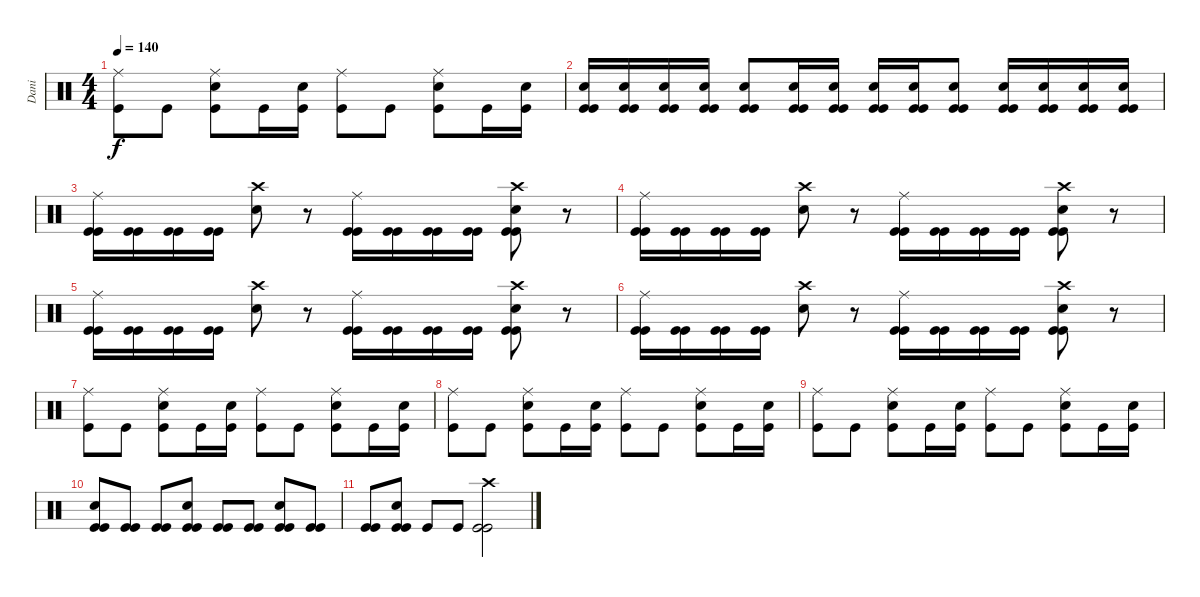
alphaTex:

\track ("Dani" "Dani") {instrument percussion}
\staff {score}
\articulation defaults
\ts (4 4)
\tempo 140
\clef neutral
\ks c
("Ride (middle)" "Kick (hit)").8{dy f} "Kick (hit)".8 ("Ride (middle)" "Snare (hit) 2" "Kick (hit)").8 "Kick (hit)".16 ("Snare (hit) 2" "Kick (hit)").16 ("Ride (middle)" "Kick (hit)").8 "Kick (hit)".8 ("Ride (middle)" "Snare (hit) 2" "Kick (hit)").8 "Kick (hit)".16 ("Snare (hit) 2" "Kick (hit)").16 |
("Snare (hit) 2" "Kick (hit)" "Kick (hit)").16 ("Snare (hit) 2" "Kick (hit)" "Kick (hit)").16 ("Snare (hit) 2" "Kick (hit)" "Kick (hit)").16 ("Snare (hit) 2" "Kick (hit)" "Kick (hit)").16 ("Snare (hit) 2" "Kick (hit)" "Kick (hit)").8 ("Snare (hit) 2" "Kick (hit)" "Kick (hit)").16 ("Snare (hit) 2" "Kick (hit)" "Kick (hit)").16 ("Snare (hit) 2" "Kick (hit)" "Kick (hit)").16 ("Snare (hit) 2" "Kick (hit)" "Kick (hit)").16 ("Snare (hit) 2" "Kick (hit)" "Kick (hit)").8 ("Snare (hit) 2" "Kick (hit)" "Kick (hit)").16 ("Snare (hit) 2" "Kick (hit)" "Kick (hit)").16 ("Snare (hit) 2" "Kick (hit)" "Kick (hit)").16 ("Snare (hit) 2" "Kick (hit)" "Kick (hit)").16 |
("Ride (middle)" "Kick (hit)" "Kick (hit)").16 ("Kick (hit)" "Kick (hit)").16 ("Kick (hit)" "Kick (hit)").16 ("Kick (hit)" "Kick (hit)").16 ("Crash high (hit)" "Snare (hit) 2").8 r.8 ("Ride (middle)" "Kick (hit)" "Kick (hit)").16 ("Kick (hit)" "Kick (hit)").16 ("Kick (hit)" "Kick (hit)").16 ("Kick (hit)" "Kick (hit)").16 ("Crash high (hit)" "Snare (hit) 2" "Kick (hit)" "Kick (hit)").8 r.8 |
("Ride (middle)" "Kick (hit)" "Kick (hit)").16 ("Kick (hit)" "Kick (hit)").16 ("Kick (hit)" "Kick (hit)").16 ("Kick (hit)" "Kick (hit)").16 ("Crash high (hit)" "Snare (hit) 2").8 r.8 ("Ride (middle)" "Kick (hit)" "Kick (hit)").16 ("Kick (hit)" "Kick (hit)").16 ("Kick (hit)" "Kick (hit)").16 ("Kick (hit)" "Kick (hit)").16 ("Crash high (hit)" "Snare (hit) 2" "Kick (hit)" "Kick (hit)").8 r.8 |
("Ride (middle)" "Kick (hit)" "Kick (hit)").16 ("Kick (hit)" "Kick (hit)").16 ("Kick (hit)" "Kick (hit)").16 ("Kick (hit)" "Kick (hit)").16 ("Crash high (hit)" "Snare (hit) 2").8 r.8 ("Ride (middle)" "Kick (hit)" "Kick (hit)").16 ("Kick (hit)" "Kick (hit)").16 ("Kick (hit)" "Kick (hit)").16 ("Kick (hit)" "Kick (hit)").16 ("Crash high (hit)" "Snare (hit) 2" "Kick (hit)" "Kick (hit)").8 r.8 |
("Ride (middle)" "Kick (hit)" "Kick (hit)").16 ("Kick (hit)" "Kick (hit)").16 ("Kick (hit)" "Kick (hit)").16 ("Kick (hit)" "Kick (hit)").16 ("Crash high (hit)" "Snare (hit) 2").8 r.8 ("Ride (middle)" "Kick (hit)" "Kick (hit)").16 ("Kick (hit)" "Kick (hit)").16 ("Kick (hit)" "Kick (hit)").16 ("Kick (hit)" "Kick (hit)").16 ("Crash high (hit)" "Snare (hit) 2" "Kick (hit)" "Kick (hit)").8 r.8 |
("Ride (middle)" "Kick (hit)").8 "Kick (hit)".8 ("Ride (middle)" "Snare (hit) 2" "Kick (hit)").8 "Kick (hit)".16 ("Snare (hit) 2" "Kick (hit)").16 ("Ride (middle)" "Kick (hit)").8 "Kick (hit)".8 ("Ride (middle)" "Snare (hit) 2" "Kick (hit)").8 "Kick (hit)".16 ("Snare (hit) 2" "Kick (hit)").16 |
("Ride (middle)" "Kick (hit)").8 "Kick (hit)".8 ("Ride (middle)" "Snare (hit) 2" "Kick (hit)").8 "Kick (hit)".16 ("Snare (hit) 2" "Kick (hit)").16 ("Ride (middle)" "Kick (hit)").8 "Kick (hit)".8 ("Ride (middle)" "Snare (hit) 2" "Kick (hit)").8 "Kick (hit)".16 ("Snare (hit) 2" "Kick (hit)").16 |
("Ride (middle)" "Kick (hit)").8 "Kick (hit)".8 ("Ride (middle)" "Snare (hit) 2" "Kick (hit)").8 "Kick (hit)".16 ("Snare (hit) 2" "Kick (hit)").16 ("Ride (middle)" "Kick (hit)").8 "Kick (hit)".8 ("Ride (middle)" "Snare (hit) 2" "Kick (hit)").8 "Kick (hit)".16 ("Snare (hit) 2" "Kick (hit)").16 |
("Snare (hit) 2" "Kick (hit)" "Kick (hit)").8 ("Kick (hit)" "Kick (hit)").8 ("Kick (hit)" "Kick (hit)").8 ("Snare (hit) 2" "Kick (hit)" "Kick (hit)").8 ("Kick (hit)" "Kick (hit)").8 ("Kick (hit)" "Kick (hit)").8 ("Snare (hit) 2" "Kick (hit)" "Kick (hit)").8 ("Kick (hit)" "Kick (hit)").8 |
("Kick (hit)" "Kick (hit)").8 ("Snare (hit) 2" "Kick (hit)" "Kick (hit)").8 "Kick (hit)".8 "Kick (hit)".8 ("Crash high (hit)" "Kick (hit)" "Kick (hit)").2
